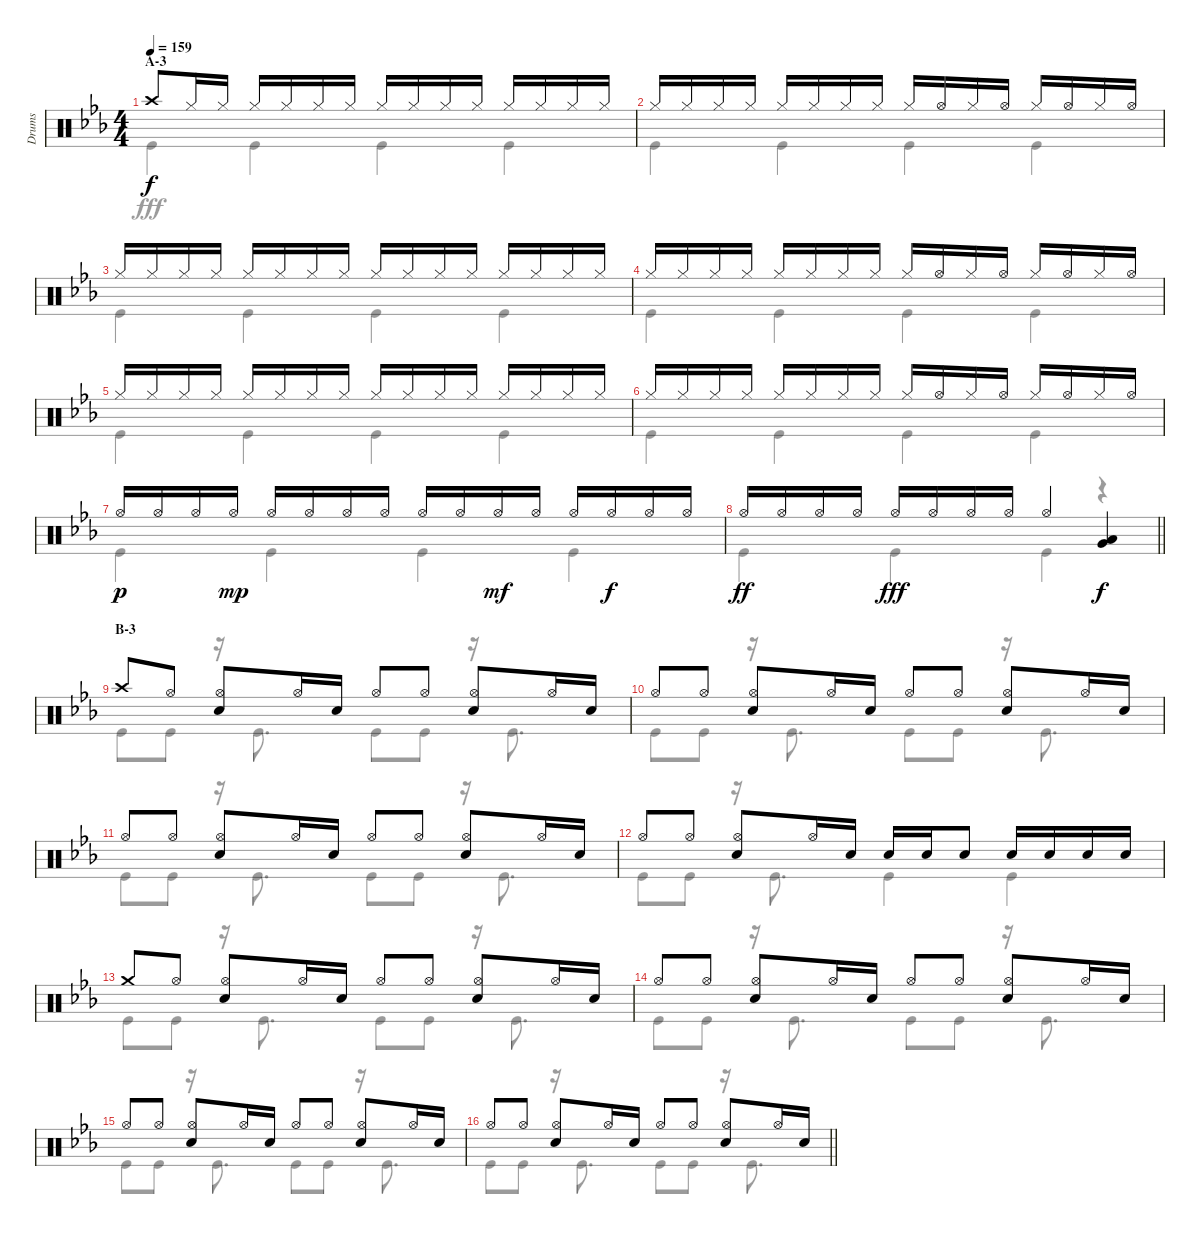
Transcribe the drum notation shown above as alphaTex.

\track ("Drums" "Drums") {instrument percussion}
\staff {score}
\articulation defaults
\voice
\ts (4 4)
\section ("" "A-3")
\tempo 159
\clef neutral
\ks eb "Crash high (hit)".8{dy f} "Hi-Hat (closed)".16 "Hi-Hat (closed)".16 "Hi-Hat (closed)".16 "Hi-Hat (closed)".16 "Hi-Hat (closed)".16 "Hi-Hat (closed)".16 "Hi-Hat (closed)".16 "Hi-Hat (closed)".16 "Hi-Hat (closed)".16 "Hi-Hat (closed)".16 "Hi-Hat (closed)".16 "Hi-Hat (closed)".16 "Hi-Hat (closed)".16 "Hi-Hat (closed)".16
|
"Hi-Hat (closed)".16 "Hi-Hat (closed)".16 "Hi-Hat (closed)".16 "Hi-Hat (closed)".16 "Hi-Hat (closed)".16 "Hi-Hat (closed)".16 "Hi-Hat (closed)".16 "Hi-Hat (closed)".16 "Hi-Hat (closed)".16 "Hi-Hat (open)".16 "Hi-Hat (closed)".16 "Hi-Hat (open)".16 "Hi-Hat (closed)".16 "Hi-Hat (open)".16 "Hi-Hat (closed)".16 "Hi-Hat (open)".16 |
"Hi-Hat (closed)".16 "Hi-Hat (closed)".16 "Hi-Hat (closed)".16 "Hi-Hat (closed)".16 "Hi-Hat (closed)".16 "Hi-Hat (closed)".16 "Hi-Hat (closed)".16 "Hi-Hat (closed)".16 "Hi-Hat (closed)".16 "Hi-Hat (closed)".16 "Hi-Hat (closed)".16 "Hi-Hat (closed)".16 "Hi-Hat (closed)".16 "Hi-Hat (closed)".16 "Hi-Hat (closed)".16 "Hi-Hat (closed)".16 |
"Hi-Hat (closed)".16 "Hi-Hat (closed)".16 "Hi-Hat (closed)".16 "Hi-Hat (closed)".16 "Hi-Hat (closed)".16 "Hi-Hat (closed)".16 "Hi-Hat (closed)".16 "Hi-Hat (closed)".16 "Hi-Hat (closed)".16 "Hi-Hat (open)".16 "Hi-Hat (closed)".16 "Hi-Hat (open)".16 "Hi-Hat (closed)".16 "Hi-Hat (open)".16 "Hi-Hat (closed)".16 "Hi-Hat (open)".16 |
"Hi-Hat (closed)".16 "Hi-Hat (closed)".16 "Hi-Hat (closed)".16 "Hi-Hat (closed)".16 "Hi-Hat (closed)".16 "Hi-Hat (closed)".16 "Hi-Hat (closed)".16 "Hi-Hat (closed)".16 "Hi-Hat (closed)".16 "Hi-Hat (closed)".16 "Hi-Hat (closed)".16 "Hi-Hat (closed)".16 "Hi-Hat (closed)".16 "Hi-Hat (closed)".16 "Hi-Hat (closed)".16 "Hi-Hat (closed)".16 |
"Hi-Hat (closed)".16 "Hi-Hat (closed)".16 "Hi-Hat (closed)".16 "Hi-Hat (closed)".16 "Hi-Hat (closed)".16 "Hi-Hat (closed)".16 "Hi-Hat (closed)".16 "Hi-Hat (closed)".16 "Hi-Hat (closed)".16 "Hi-Hat (open)".16 "Hi-Hat (closed)".16 "Hi-Hat (open)".16 "Hi-Hat (closed)".16 "Hi-Hat (open)".16 "Hi-Hat (closed)".16 "Hi-Hat (open)".16 |
"Hi-Hat (open)".16{dy p} "Hi-Hat (open)".16 "Hi-Hat (open)".16 "Hi-Hat (open)".16{dy mp} "Hi-Hat (open)".16 "Hi-Hat (open)".16 "Hi-Hat (open)".16 "Hi-Hat (open)".16 "Hi-Hat (open)".16 "Hi-Hat (open)".16 "Hi-Hat (open)".16{dy mf} "Hi-Hat (open)".16 "Hi-Hat (open)".16 "Hi-Hat (open)".16{dy f} "Hi-Hat (open)".16 "Hi-Hat (open)".16 |
\barLineRight lightlight "Hi-Hat (open)".16{dy ff} "Hi-Hat (open)".16 "Hi-Hat (open)".16 "Hi-Hat (open)".16 "Hi-Hat (open)".16{dy fff} "Hi-Hat (open)".16 "Hi-Hat (open)".16 "Hi-Hat (open)".16 "Hi-Hat (open)".4
("Low Tom (hit)" "Very Low Tom (hit)").4{dy f} |
\section ("" "B-3")
"Crash high (hit)".8 "Hi-Hat (open)".8 ("Hi-Hat (open)" "Snare (hit) 2").8 "Hi-Hat (open)".16 "Snare (hit) 2".16 "Hi-Hat (open)".8 "Hi-Hat (open)".8 ("Hi-Hat (open)" "Snare (hit) 2").8 "Hi-Hat (open)".16 "Snare (hit) 2".16 |
"Hi-Hat (open)".8 "Hi-Hat (open)".8 ("Hi-Hat (open)" "Snare (hit) 2").8 "Hi-Hat (open)".16 "Snare (hit) 2".16 "Hi-Hat (open)".8 "Hi-Hat (open)".8 ("Hi-Hat (open)" "Snare (hit) 2").8 "Hi-Hat (open)".16 "Snare (hit) 2".16 |
"Hi-Hat (open)".8 "Hi-Hat (open)".8 ("Hi-Hat (open)" "Snare (hit) 2").8 "Hi-Hat (open)".16 "Snare (hit) 2".16 "Hi-Hat (open)".8 "Hi-Hat (open)".8 ("Hi-Hat (open)" "Snare (hit) 2").8 "Hi-Hat (open)".16 "Snare (hit) 2".16 |
"Hi-Hat (open)".8 "Hi-Hat (open)".8 ("Hi-Hat (open)" "Snare (hit) 2").8 "Hi-Hat (open)".16 "Snare (hit) 2".16 "Snare (hit) 2".16 "Snare (hit) 2".16 "Snare (hit) 2".8 "Snare (hit) 2".16 "Snare (hit) 2".16 "Snare (hit) 2".16 "Snare (hit) 2".16 |
"Crash medium (hit)".8 "Hi-Hat (open)".8 ("Hi-Hat (open)" "Snare (hit) 2").8 "Hi-Hat (open)".16 "Snare (hit) 2".16 "Hi-Hat (open)".8 "Hi-Hat (open)".8 ("Hi-Hat (open)" "Snare (hit) 2").8 "Hi-Hat (open)".16 "Snare (hit) 2".16 |
"Hi-Hat (open)".8 "Hi-Hat (open)".8 ("Hi-Hat (open)" "Snare (hit) 2").8 "Hi-Hat (open)".16 "Snare (hit) 2".16 "Hi-Hat (open)".8 "Hi-Hat (open)".8 ("Hi-Hat (open)" "Snare (hit) 2").8 "Hi-Hat (open)".16 "Snare (hit) 2".16 |
"Hi-Hat (open)".8 "Hi-Hat (open)".8 ("Hi-Hat (open)" "Snare (hit) 2").8 "Hi-Hat (open)".16 "Snare (hit) 2".16 "Hi-Hat (open)".8 "Hi-Hat (open)".8 ("Hi-Hat (open)" "Snare (hit) 2").8 "Hi-Hat (open)".16 "Snare (hit) 2".16 |
\barLineRight lightlight "Hi-Hat (open)".8 "Hi-Hat (open)".8
("Hi-Hat (open)" "Snare (hit) 2").8 "Hi-Hat (open)".16 "Snare (hit) 2".16 "Hi-Hat (open)".8 "Hi-Hat (open)".8 ("Hi-Hat (open)" "Snare (hit) 2").8 "Hi-Hat (open)".16 "Snare (hit) 2".16
\voice
\clef neutral
\ottava regular
\simile none
\ks eb "Kick (hit)".4{dy fff} "Kick (hit)".4 "Kick (hit)".4 "Kick (hit)".4
|
"Kick (hit)".4 "Kick (hit)".4 "Kick (hit)".4 "Kick (hit)".4 |
"Kick (hit)".4 "Kick (hit)".4 "Kick (hit)".4 "Kick (hit)".4 |
"Kick (hit)".4 "Kick (hit)".4 "Kick (hit)".4 "Kick (hit)".4 |
"Kick (hit)".4 "Kick (hit)".4 "Kick (hit)".4 "Kick (hit)".4 |
"Kick (hit)".4 "Kick (hit)".4 "Kick (hit)".4 "Kick (hit)".4 |
"Kick (hit)".4 "Kick (hit)".4 "Kick (hit)".4 "Kick (hit)".4 |
\barLineRight lightlight "Kick (hit)".4 "Kick (hit)".4 "Kick (hit)".4
r.4 |
"Kick (hit)".8 "Kick (hit)".8 r.16 "Kick (hit)".8{d} "Kick (hit)".8 "Kick (hit)".8 r.16 "Kick (hit)".8{d} |
"Kick (hit)".8 "Kick (hit)".8 r.16 "Kick (hit)".8{d} "Kick (hit)".8 "Kick (hit)".8 r.16 "Kick (hit)".8{d} |
"Kick (hit)".8 "Kick (hit)".8 r.16 "Kick (hit)".8{d} "Kick (hit)".8 "Kick (hit)".8 r.16 "Kick (hit)".8{d} |
"Kick (hit)".8 "Kick (hit)".8 r.16 "Kick (hit)".8{d} "Kick (hit)".4 "Kick (hit)".4 |
"Kick (hit)".8 "Kick (hit)".8 r.16 "Kick (hit)".8{d} "Kick (hit)".8 "Kick (hit)".8 r.16 "Kick (hit)".8{d} |
"Kick (hit)".8 "Kick (hit)".8 r.16 "Kick (hit)".8{d} "Kick (hit)".8 "Kick (hit)".8 r.16 "Kick (hit)".8{d} |
"Kick (hit)".8 "Kick (hit)".8 r.16 "Kick (hit)".8{d} "Kick (hit)".8 "Kick (hit)".8 r.16 "Kick (hit)".8{d} |
\barLineRight lightlight "Kick (hit)".8 "Kick (hit)".8
r.16 "Kick (hit)".8{d} "Kick (hit)".8 "Kick (hit)".8 r.16 "Kick (hit)".8{d}
